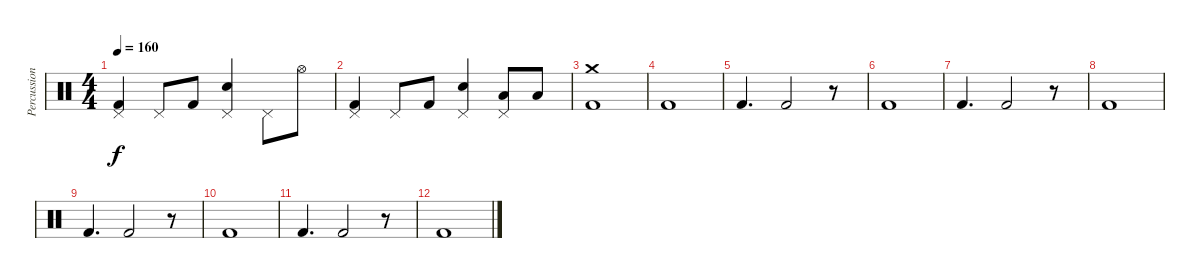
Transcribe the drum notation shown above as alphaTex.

\track ("Percussion" "Percussion") {instrument percussion}
\staff {score}
\articulation defaults
\ts (4 4)
\tempo 160
\clef neutral
\ks c
("Pedal Hi-Hat (hit)" "Kick (hit) 2").4{dy f} "Pedal Hi-Hat (hit)".8 "Kick (hit) 2".8 ("Snare (hit) 2" "Pedal Hi-Hat (hit)").4 "Pedal Hi-Hat (hit)".8 "Hi-Hat (open)".8 |
("Pedal Hi-Hat (hit)" "Kick (hit) 2").4 "Pedal Hi-Hat (hit)".8 "Kick (hit) 2".8 ("Snare (hit) 2" "Pedal Hi-Hat (hit)").4 ("Low Tom (hit)" "Pedal Hi-Hat (hit)").8 "Low Tom (hit)".8 |
("Kick (hit) 2" "Crash medium (hit)").1 |
"Kick (hit) 2".1 |
"Kick (hit) 2".4{d} "Kick (hit) 2".2 r.8 |
"Kick (hit) 2".1 |
"Kick (hit) 2".4{d} "Kick (hit) 2".2 r.8 |
"Kick (hit) 2".1 |
"Kick (hit) 2".4{d} "Kick (hit) 2".2 r.8 |
"Kick (hit) 2".1 |
"Kick (hit) 2".4{d} "Kick (hit) 2".2 r.8 |
"Kick (hit) 2".1
